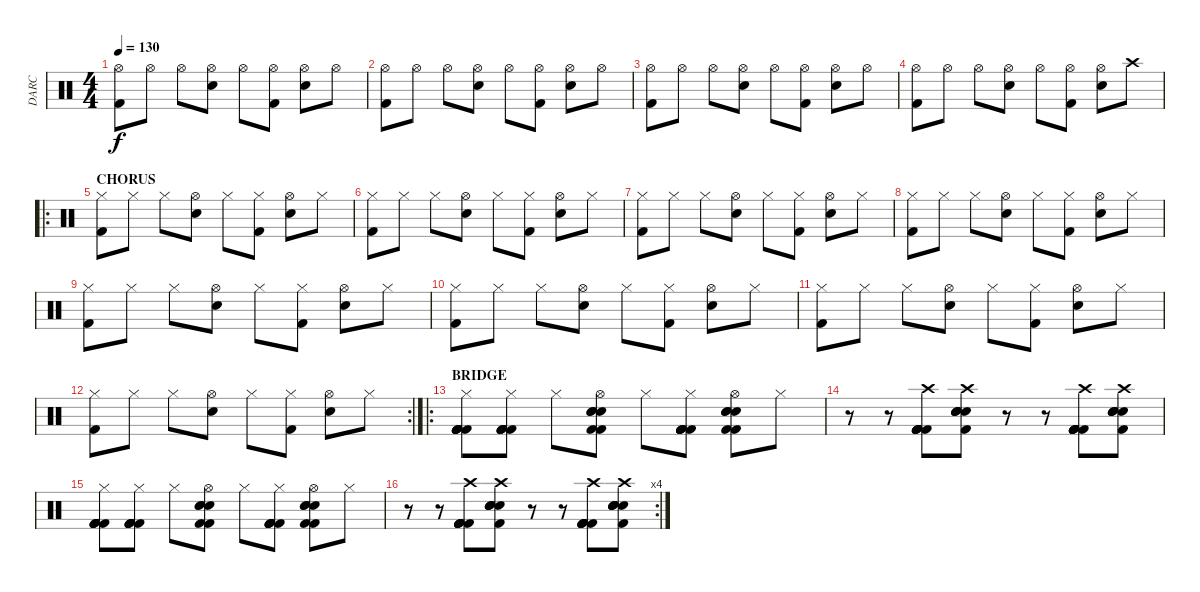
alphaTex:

\track ("DARC" "DARC") {instrument percussion}
\staff {score}
\articulation defaults
\ts (4 4)
\tempo 130
\clef neutral
\ks c
("Kick (hit) 2" "Hi-Hat (open)").8{dy f} "Hi-Hat (open)".8 "Hi-Hat (open)".8 ("Snare (hit) 2" "Hi-Hat (open)").8 "Hi-Hat (open)".8 ("Kick (hit) 2" "Hi-Hat (open)").8 ("Snare (hit) 2" "Hi-Hat (open)").8 "Hi-Hat (open)".8 |
("Kick (hit) 2" "Hi-Hat (open)").8 "Hi-Hat (open)".8 "Hi-Hat (open)".8 ("Snare (hit) 2" "Hi-Hat (open)").8 "Hi-Hat (open)".8 ("Kick (hit) 2" "Hi-Hat (open)").8 ("Snare (hit) 2" "Hi-Hat (open)").8 "Hi-Hat (open)".8 |
("Kick (hit) 2" "Hi-Hat (open)").8 "Hi-Hat (open)".8 "Hi-Hat (open)".8 ("Snare (hit) 2" "Hi-Hat (open)").8 "Hi-Hat (open)".8 ("Kick (hit) 2" "Hi-Hat (open)").8 ("Snare (hit) 2" "Hi-Hat (open)").8 "Hi-Hat (open)".8 |
("Kick (hit) 2" "Hi-Hat (open)").8 "Hi-Hat (open)".8 "Hi-Hat (open)".8 ("Snare (hit) 2" "Hi-Hat (open)").8 "Hi-Hat (open)".8 ("Kick (hit) 2" "Hi-Hat (open)").8 ("Snare (hit) 2" "Hi-Hat (open)").8 "Crash high (hit)".8 |
\ro
\section ("" "CHORUS")
("Kick (hit) 2" "Hi-Hat (closed)").8 "Hi-Hat (closed)".8 "Hi-Hat (closed)".8 ("Snare (hit) 2" "Hi-Hat (open)").8 "Hi-Hat (closed)".8 ("Kick (hit) 2" "Hi-Hat (closed)").8 ("Snare (hit) 2" "Hi-Hat (open)").8 "Hi-Hat (closed)".8 |
("Kick (hit) 2" "Hi-Hat (closed)").8 "Hi-Hat (closed)".8 "Hi-Hat (closed)".8 ("Snare (hit) 2" "Hi-Hat (open)").8 "Hi-Hat (closed)".8 ("Kick (hit) 2" "Hi-Hat (closed)").8 ("Snare (hit) 2" "Hi-Hat (open)").8 "Hi-Hat (closed)".8 |
("Kick (hit) 2" "Hi-Hat (closed)").8 "Hi-Hat (closed)".8 "Hi-Hat (closed)".8 ("Snare (hit) 2" "Hi-Hat (open)").8 "Hi-Hat (closed)".8 ("Kick (hit) 2" "Hi-Hat (closed)").8 ("Snare (hit) 2" "Hi-Hat (open)").8 "Hi-Hat (closed)".8 |
("Kick (hit) 2" "Hi-Hat (closed)").8 "Hi-Hat (closed)".8 "Hi-Hat (closed)".8 ("Snare (hit) 2" "Hi-Hat (open)").8 "Hi-Hat (closed)".8 ("Kick (hit) 2" "Hi-Hat (closed)").8 ("Snare (hit) 2" "Hi-Hat (open)").8 "Hi-Hat (closed)".8 |
("Kick (hit) 2" "Hi-Hat (closed)").8 "Hi-Hat (closed)".8 "Hi-Hat (closed)".8 ("Snare (hit) 2" "Hi-Hat (open)").8 "Hi-Hat (closed)".8 ("Kick (hit) 2" "Hi-Hat (closed)").8 ("Snare (hit) 2" "Hi-Hat (open)").8 "Hi-Hat (closed)".8 |
("Kick (hit) 2" "Hi-Hat (closed)").8 "Hi-Hat (closed)".8 "Hi-Hat (closed)".8 ("Snare (hit) 2" "Hi-Hat (open)").8 "Hi-Hat (closed)".8 ("Kick (hit) 2" "Hi-Hat (closed)").8 ("Snare (hit) 2" "Hi-Hat (open)").8 "Hi-Hat (closed)".8 |
("Kick (hit) 2" "Hi-Hat (closed)").8 "Hi-Hat (closed)".8 "Hi-Hat (closed)".8 ("Snare (hit) 2" "Hi-Hat (open)").8 "Hi-Hat (closed)".8 ("Kick (hit) 2" "Hi-Hat (closed)").8 ("Snare (hit) 2" "Hi-Hat (open)").8 "Hi-Hat (closed)".8 |
\rc 2
("Kick (hit) 2" "Hi-Hat (closed)").8 "Hi-Hat (closed)".8 "Hi-Hat (closed)".8 ("Snare (hit) 2" "Hi-Hat (open)").8 "Hi-Hat (closed)".8 ("Kick (hit) 2" "Hi-Hat (closed)").8 ("Snare (hit) 2" "Hi-Hat (open)").8 "Hi-Hat (closed)".8 |
\ro
\section ("" "BRIDGE")
("Kick (hit) 2" "Kick (hit) 2" "Kick (hit) 2" "Kick (hit) 2" "Kick (hit) 2" "Hi-Hat (closed)").8 ("Kick (hit) 2" "Kick (hit) 2" "Kick (hit) 2" "Kick (hit) 2" "Kick (hit) 2" "Hi-Hat (closed)").8 "Hi-Hat (closed)".8 ("Kick (hit) 2" "Kick (hit) 2" "Electric Snare (hit)" "Electric Snare (hit)" "Electric Snare (hit)" "Hi-Hat (open)").8 "Hi-Hat (closed)".8 ("Kick (hit) 2" "Kick (hit) 2" "Kick (hit) 2" "Kick (hit) 2" "Kick (hit) 2" "Hi-Hat (closed)").8 ("Kick (hit) 2" "Kick (hit) 2" "Electric Snare (hit)" "Electric Snare (hit)" "Electric Snare (hit)" "Hi-Hat (open)").8 "Hi-Hat (closed)".8 |
r.8 r.8 ("Kick (hit) 2" "Kick (hit) 2" "Kick (hit) 2" "Kick (hit) 2" "Kick (hit) 2" "Crash high (hit)").8 ("Electric Snare (hit)" "Electric Snare (hit)" "Electric Snare (hit)" "Electric Snare (hit)" "Kick (hit) 2" "Crash high (hit)").8 r.8 r.8 ("Kick (hit) 2" "Kick (hit) 2" "Kick (hit) 2" "Kick (hit) 2" "Kick (hit) 2" "Crash high (hit)").8 ("Electric Snare (hit)" "Electric Snare (hit)" "Electric Snare (hit)" "Electric Snare (hit)" "Kick (hit) 2" "Crash high (hit)").8 |
("Kick (hit) 2" "Kick (hit) 2" "Kick (hit) 2" "Kick (hit) 2" "Kick (hit) 2" "Hi-Hat (closed)").8 ("Kick (hit) 2" "Kick (hit) 2" "Kick (hit) 2" "Kick (hit) 2" "Kick (hit) 2" "Hi-Hat (closed)").8 "Hi-Hat (closed)".8 ("Kick (hit) 2" "Kick (hit) 2" "Electric Snare (hit)" "Electric Snare (hit)" "Electric Snare (hit)" "Hi-Hat (open)").8 "Hi-Hat (closed)".8 ("Kick (hit) 2" "Kick (hit) 2" "Kick (hit) 2" "Kick (hit) 2" "Kick (hit) 2" "Hi-Hat (closed)").8 ("Kick (hit) 2" "Kick (hit) 2" "Electric Snare (hit)" "Electric Snare (hit)" "Electric Snare (hit)" "Hi-Hat (open)").8 "Hi-Hat (closed)".8 |
\rc 4
r.8 r.8 ("Kick (hit) 2" "Kick (hit) 2" "Kick (hit) 2" "Kick (hit) 2" "Kick (hit) 2" "Crash high (hit)").8 ("Electric Snare (hit)" "Electric Snare (hit)" "Electric Snare (hit)" "Electric Snare (hit)" "Kick (hit) 2" "Crash high (hit)").8 r.8 r.8 ("Kick (hit) 2" "Kick (hit) 2" "Kick (hit) 2" "Kick (hit) 2" "Kick (hit) 2" "Crash high (hit)").8 ("Electric Snare (hit)" "Electric Snare (hit)" "Electric Snare (hit)" "Electric Snare (hit)" "Kick (hit) 2" "Crash high (hit)").8
